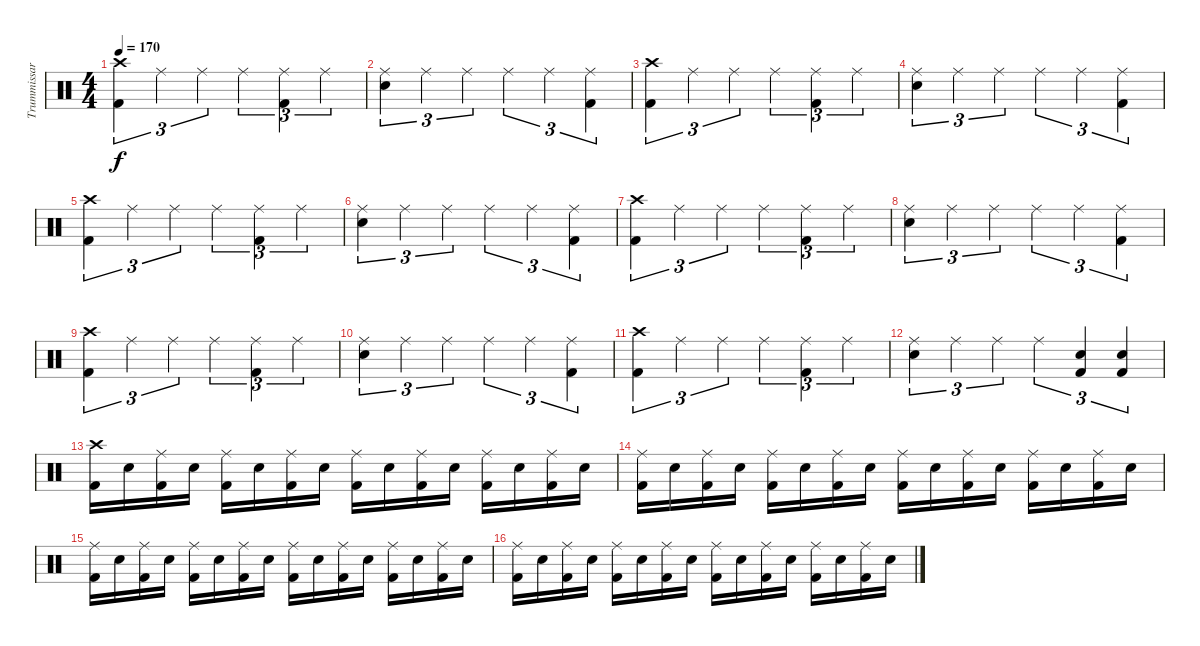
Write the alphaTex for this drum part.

\track ("Trummissar!!" "Trummissar") {instrument percussion}
\staff {score}
\articulation defaults
\ts (4 4)
\tempo 170
\clef neutral
\ks c
("Crash high (hit)" "Kick (hit) 2").4{tu (3 2) dy f} "Ride (middle)".4{tu (3 2)} "Ride (middle)".4{tu (3 2)} "Ride (middle)".4{tu (3 2)} ("Ride (middle)" "Kick (hit) 2").4{tu (3 2)} "Ride (middle)".4{tu (3 2)} |
("Ride (middle)" "Electric Snare (hit)").4{tu (3 2)} "Ride (middle)".4{tu (3 2)} "Ride (middle)".4{tu (3 2)} "Ride (middle)".4{tu (3 2)} "Ride (middle)".4{tu (3 2)} ("Ride (middle)" "Kick (hit) 2").4{tu (3 2)} |
("Crash high (hit)" "Kick (hit) 2").4{tu (3 2)} "Ride (middle)".4{tu (3 2)} "Ride (middle)".4{tu (3 2)} "Ride (middle)".4{tu (3 2)} ("Ride (middle)" "Kick (hit) 2").4{tu (3 2)} "Ride (middle)".4{tu (3 2)} |
("Ride (middle)" "Electric Snare (hit)").4{tu (3 2)} "Ride (middle)".4{tu (3 2)} "Ride (middle)".4{tu (3 2)} "Ride (middle)".4{tu (3 2)} "Ride (middle)".4{tu (3 2)} ("Ride (middle)" "Kick (hit) 2").4{tu (3 2)} |
("Crash high (hit)" "Kick (hit) 2").4{tu (3 2)} "Ride (middle)".4{tu (3 2)} "Ride (middle)".4{tu (3 2)} "Ride (middle)".4{tu (3 2)} ("Ride (middle)" "Kick (hit) 2").4{tu (3 2)} "Ride (middle)".4{tu (3 2)} |
("Ride (middle)" "Electric Snare (hit)").4{tu (3 2)} "Ride (middle)".4{tu (3 2)} "Ride (middle)".4{tu (3 2)} "Ride (middle)".4{tu (3 2)} "Ride (middle)".4{tu (3 2)} ("Ride (middle)" "Kick (hit) 2").4{tu (3 2)} |
("Crash high (hit)" "Kick (hit) 2").4{tu (3 2)} "Ride (middle)".4{tu (3 2)} "Ride (middle)".4{tu (3 2)} "Ride (middle)".4{tu (3 2)} ("Ride (middle)" "Kick (hit) 2").4{tu (3 2)} "Ride (middle)".4{tu (3 2)} |
("Ride (middle)" "Electric Snare (hit)").4{tu (3 2)} "Ride (middle)".4{tu (3 2)} "Ride (middle)".4{tu (3 2)} "Ride (middle)".4{tu (3 2)} "Ride (middle)".4{tu (3 2)} ("Ride (middle)" "Kick (hit) 2").4{tu (3 2)} |
("Crash high (hit)" "Kick (hit) 2").4{tu (3 2)} "Ride (middle)".4{tu (3 2)} "Ride (middle)".4{tu (3 2)} "Ride (middle)".4{tu (3 2)} ("Ride (middle)" "Kick (hit) 2").4{tu (3 2)} "Ride (middle)".4{tu (3 2)} |
("Ride (middle)" "Electric Snare (hit)").4{tu (3 2)} "Ride (middle)".4{tu (3 2)} "Ride (middle)".4{tu (3 2)} "Ride (middle)".4{tu (3 2)} "Ride (middle)".4{tu (3 2)} ("Ride (middle)" "Kick (hit) 2").4{tu (3 2)} |
("Crash high (hit)" "Kick (hit) 2").4{tu (3 2)} "Ride (middle)".4{tu (3 2)} "Ride (middle)".4{tu (3 2)} "Ride (middle)".4{tu (3 2)} ("Ride (middle)" "Kick (hit) 2").4{tu (3 2)} "Ride (middle)".4{tu (3 2)} |
("Ride (middle)" "Electric Snare (hit)").4{tu (3 2)} "Ride (middle)".4{tu (3 2)} "Ride (middle)".4{tu (3 2)} "Ride (middle)".4{tu (3 2)} ("Electric Snare (hit)" "Kick (hit) 2").4{tu (3 2)} ("Electric Snare (hit)" "Kick (hit) 2").4{tu (3 2)} |
("Crash high (hit)" "Kick (hit) 2").16 "Electric Snare (hit)".16 ("Ride (middle)" "Kick (hit) 2").16 "Electric Snare (hit)".16 ("Ride (middle)" "Kick (hit) 2").16 "Electric Snare (hit)".16 ("Ride (middle)" "Kick (hit) 2").16 "Electric Snare (hit)".16 ("Ride (middle)" "Kick (hit) 2").16 "Electric Snare (hit)".16 ("Ride (middle)" "Kick (hit) 2").16 "Electric Snare (hit)".16 ("Ride (middle)" "Kick (hit) 2").16 "Electric Snare (hit)".16 ("Ride (middle)" "Kick (hit) 2").16 "Electric Snare (hit)".16 |
("Ride (middle)" "Kick (hit) 2").16 "Electric Snare (hit)".16 ("Ride (middle)" "Kick (hit) 2").16 "Electric Snare (hit)".16 ("Ride (middle)" "Kick (hit) 2").16 "Electric Snare (hit)".16 ("Ride (middle)" "Kick (hit) 2").16 "Electric Snare (hit)".16 ("Ride (middle)" "Kick (hit) 2").16 "Electric Snare (hit)".16 ("Ride (middle)" "Kick (hit) 2").16 "Electric Snare (hit)".16 ("Ride (middle)" "Kick (hit) 2").16 "Electric Snare (hit)".16 ("Ride (middle)" "Kick (hit) 2").16 "Electric Snare (hit)".16 |
("Ride (middle)" "Kick (hit) 2").16 "Electric Snare (hit)".16 ("Ride (middle)" "Kick (hit) 2").16 "Electric Snare (hit)".16 ("Ride (middle)" "Kick (hit) 2").16 "Electric Snare (hit)".16 ("Ride (middle)" "Kick (hit) 2").16 "Electric Snare (hit)".16 ("Ride (middle)" "Kick (hit) 2").16 "Electric Snare (hit)".16 ("Ride (middle)" "Kick (hit) 2").16 "Electric Snare (hit)".16 ("Ride (middle)" "Kick (hit) 2").16 "Electric Snare (hit)".16 ("Ride (middle)" "Kick (hit) 2").16 "Electric Snare (hit)".16 |
("Ride (middle)" "Kick (hit) 2").16 "Electric Snare (hit)".16 ("Ride (middle)" "Kick (hit) 2").16 "Electric Snare (hit)".16 ("Ride (middle)" "Kick (hit) 2").16 "Electric Snare (hit)".16 ("Ride (middle)" "Kick (hit) 2").16 "Electric Snare (hit)".16 ("Ride (middle)" "Kick (hit) 2").16 "Electric Snare (hit)".16 ("Ride (middle)" "Kick (hit) 2").16 "Electric Snare (hit)".16 ("Ride (middle)" "Kick (hit) 2").16 "Electric Snare (hit)".16 ("Ride (middle)" "Kick (hit) 2").16 "Electric Snare (hit)".16
